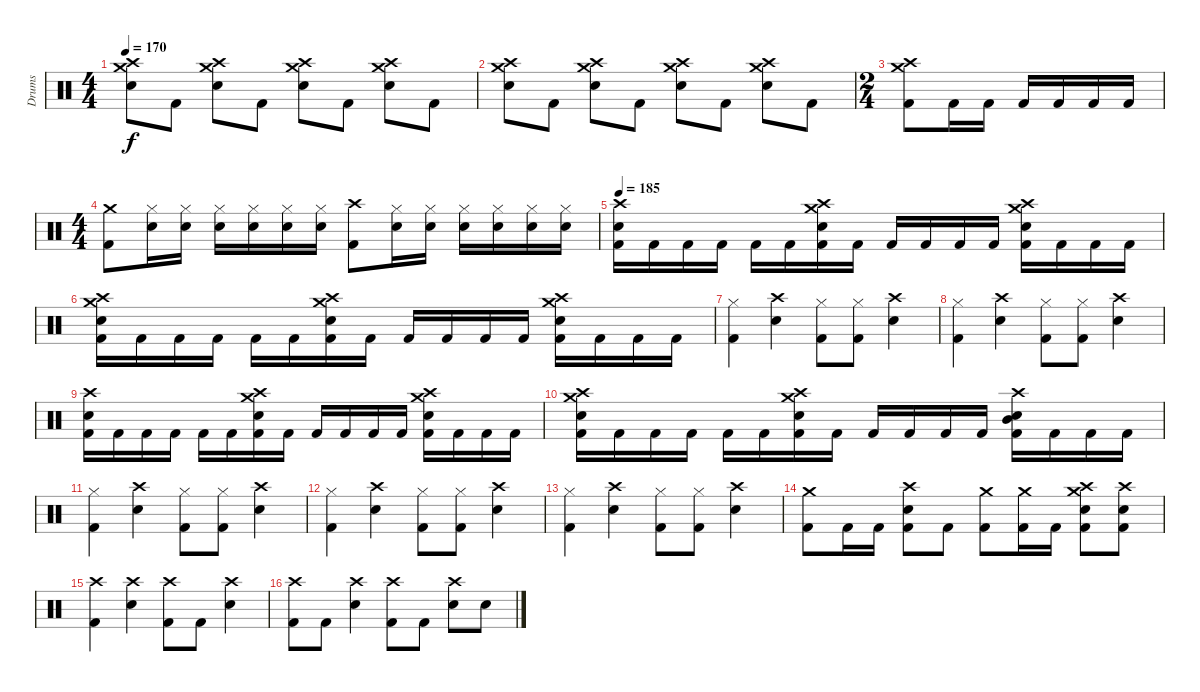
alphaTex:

\track ("Drums" "Drums") {instrument percussion}
\staff {score}
\articulation defaults
\ts (4 4)
\tempo 170
\clef neutral
\ks c
("Crash high (hit)" "Crash medium (hit)" "Electric Snare (hit)").8{dy f} "Kick (hit) 2".8 ("Crash high (hit)" "Crash medium (hit)" "Electric Snare (hit)").8 "Kick (hit) 2".8 ("Crash high (hit)" "Crash medium (hit)" "Electric Snare (hit)").8 "Kick (hit) 2".8 ("Crash high (hit)" "Crash medium (hit)" "Electric Snare (hit)").8 "Kick (hit) 2".8 |
("Crash high (hit)" "Crash medium (hit)" "Electric Snare (hit)").8 "Kick (hit) 2".8 ("Crash high (hit)" "Crash medium (hit)" "Electric Snare (hit)").8 "Kick (hit) 2".8 ("Crash high (hit)" "Crash medium (hit)" "Electric Snare (hit)").8 "Kick (hit) 2".8 ("Crash high (hit)" "Crash medium (hit)" "Electric Snare (hit)").8 "Kick (hit) 2".8 |
\ts (2 4)
("Crash medium (hit)" "Crash high (hit)" "Kick (hit) 2").8 "Kick (hit) 2".16 "Kick (hit) 2".16 "Kick (hit) 2".16 "Kick (hit) 2".16 "Kick (hit) 2".16 "Kick (hit) 2".16 |
\ts (4 4)
("Crash medium (hit)" "Kick (hit) 2").8 ("Hi-Hat (closed)" "Electric Snare (hit)").16 ("Hi-Hat (closed)" "Electric Snare (hit)").16 ("Hi-Hat (closed)" "Electric Snare (hit)").16 ("Hi-Hat (closed)" "Electric Snare (hit)").16 ("Hi-Hat (closed)" "Electric Snare (hit)").16 ("Hi-Hat (closed)" "Electric Snare (hit)").16 ("Crash high (hit)" "Kick (hit) 2").8 ("Hi-Hat (closed)" "Electric Snare (hit)").16 ("Hi-Hat (closed)" "Electric Snare (hit)").16 ("Hi-Hat (closed)" "Electric Snare (hit)").16 ("Hi-Hat (closed)" "Electric Snare (hit)").16 ("Hi-Hat (closed)" "Electric Snare (hit)").16 ("Hi-Hat (closed)" "Electric Snare (hit)").16 |
\tempo 185
("Crash high (hit)" "Electric Snare (hit)" "Kick (hit) 2").16 "Kick (hit) 2".16 "Kick (hit) 2".16 "Kick (hit) 2".16 "Kick (hit) 2".16 "Kick (hit) 2".16 ("Crash high (hit)" "Crash medium (hit)" "Electric Snare (hit)" "Kick (hit) 2").16 "Kick (hit) 2".16 "Kick (hit) 2".16 "Kick (hit) 2".16 "Kick (hit) 2".16 "Kick (hit) 2".16 ("Crash high (hit)" "Crash medium (hit)" "Electric Snare (hit)" "Kick (hit) 2").16 "Kick (hit) 2".16 "Kick (hit) 2".16 "Kick (hit) 2".16 |
("Crash high (hit)" "Crash medium (hit)" "Electric Snare (hit)" "Kick (hit) 2").16 "Kick (hit) 2".16 "Kick (hit) 2".16 "Kick (hit) 2".16 "Kick (hit) 2".16 "Kick (hit) 2".16 ("Crash high (hit)" "Crash medium (hit)" "Electric Snare (hit)" "Kick (hit) 2").16 "Kick (hit) 2".16 "Kick (hit) 2".16 "Kick (hit) 2".16 "Kick (hit) 2".16 "Kick (hit) 2".16 ("Crash high (hit)" "Crash medium (hit)" "Electric Snare (hit)" "Kick (hit) 2").16 "Kick (hit) 2".16 "Kick (hit) 2".16 "Kick (hit) 2".16 |
("Hi-Hat (closed)" "Kick (hit) 2").4 ("Crash high (hit)" "Electric Snare (hit)").4 ("Hi-Hat (closed)" "Kick (hit) 2").8 ("Hi-Hat (closed)" "Kick (hit) 2").8 ("Crash high (hit)" "Electric Snare (hit)").4 |
("Hi-Hat (closed)" "Kick (hit) 2").4 ("Crash high (hit)" "Electric Snare (hit)").4 ("Hi-Hat (closed)" "Kick (hit) 2").8 ("Hi-Hat (closed)" "Kick (hit) 2").8 ("Crash high (hit)" "Electric Snare (hit)").4 |
("Crash high (hit)" "Electric Snare (hit)" "Kick (hit) 2").16 "Kick (hit) 2".16 "Kick (hit) 2".16 "Kick (hit) 2".16 "Kick (hit) 2".16 "Kick (hit) 2".16 ("Crash high (hit)" "Crash medium (hit)" "Electric Snare (hit)" "Kick (hit) 2").16 "Kick (hit) 2".16 "Kick (hit) 2".16 "Kick (hit) 2".16 "Kick (hit) 2".16 "Kick (hit) 2".16 ("Crash high (hit)" "Crash medium (hit)" "Electric Snare (hit)" "Kick (hit) 2").16 "Kick (hit) 2".16 "Kick (hit) 2".16 "Kick (hit) 2".16 |
("Crash high (hit)" "Crash medium (hit)" "Electric Snare (hit)" "Kick (hit) 2").16 "Kick (hit) 2".16 "Kick (hit) 2".16 "Kick (hit) 2".16 "Kick (hit) 2".16 "Kick (hit) 2".16 ("Crash high (hit)" "Crash medium (hit)" "Electric Snare (hit)" "Kick (hit) 2").16 "Kick (hit) 2".16 "Kick (hit) 2".16 "Kick (hit) 2".16 "Kick (hit) 2".16 "Kick (hit) 2".16 ("Crash high (hit)" "Mid Tom (hit)" "Electric Snare (hit)" "Kick (hit) 2").16 "Kick (hit) 2".16 "Kick (hit) 2".16 "Kick (hit) 2".16 |
("Hi-Hat (closed)" "Kick (hit) 2").4 ("Crash high (hit)" "Electric Snare (hit)").4 ("Hi-Hat (closed)" "Kick (hit) 2").8 ("Hi-Hat (closed)" "Kick (hit) 2").8 ("Crash high (hit)" "Electric Snare (hit)").4 |
("Hi-Hat (closed)" "Kick (hit) 2").4 ("Crash high (hit)" "Electric Snare (hit)").4 ("Hi-Hat (closed)" "Kick (hit) 2").8 ("Hi-Hat (closed)" "Kick (hit) 2").8 ("Crash high (hit)" "Electric Snare (hit)").4 |
("Hi-Hat (closed)" "Kick (hit) 2").4 ("Crash high (hit)" "Electric Snare (hit)").4 ("Hi-Hat (closed)" "Kick (hit) 2").8 ("Hi-Hat (closed)" "Kick (hit) 2").8 ("Crash high (hit)" "Electric Snare (hit)").4 |
("Crash medium (hit)" "Kick (hit) 2").8 "Kick (hit) 2".16 "Kick (hit) 2".16 ("Crash high (hit)" "Electric Snare (hit)" "Kick (hit) 2").8 "Kick (hit) 2".8 ("Crash medium (hit)" "Kick (hit) 2").8 ("Crash medium (hit)" "Kick (hit) 2").16 "Kick (hit) 2".16 ("Crash medium (hit)" "Crash high (hit)" "Electric Snare (hit)" "Kick (hit) 2").8 ("Crash high (hit)" "Electric Snare (hit)" "Kick (hit) 2").8 |
("Crash high (hit)" "Kick (hit) 2").4 ("Crash high (hit)" "Electric Snare (hit)").4 ("Crash high (hit)" "Kick (hit) 2").8 "Kick (hit) 2".8 ("Crash high (hit)" "Electric Snare (hit)").4 |
("Crash high (hit)" "Kick (hit) 2").8 "Kick (hit) 2".8 ("Crash high (hit)" "Electric Snare (hit)").4 ("Crash high (hit)" "Kick (hit) 2").8 "Kick (hit) 2".8 ("Crash high (hit)" "Electric Snare (hit)").8 "Electric Snare (hit)".8
